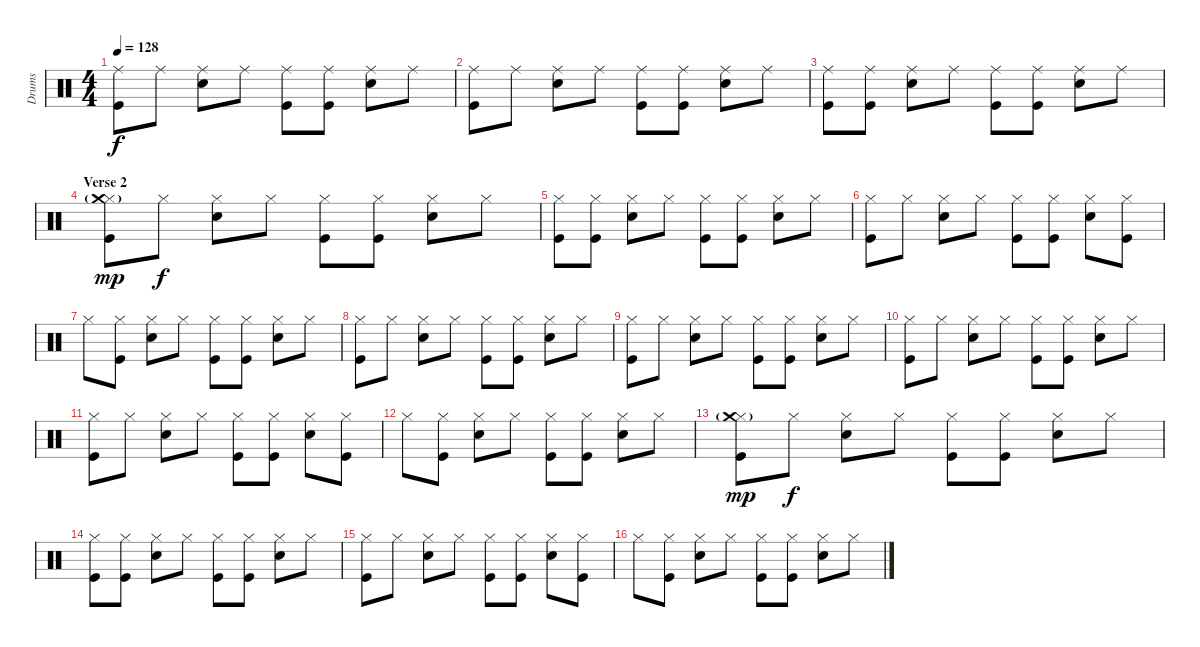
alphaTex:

\track ("Drums" "Drums") {instrument percussion}
\staff {score}
\articulation defaults
\ts (4 4)
\tempo 128
\clef neutral
\ks c
("Ride (middle)" "Kick (hit)").8{dy f} "Ride (middle)".8 ("Ride (middle)" "Snare (hit) 2").8 "Ride (middle)".8 ("Ride (middle)" "Kick (hit)").8 ("Ride (middle)" "Kick (hit)").8 ("Ride (middle)" "Snare (hit) 2").8 "Ride (middle)".8 |
("Ride (middle)" "Kick (hit)").8 "Ride (middle)".8 ("Ride (middle)" "Snare (hit) 2").8 "Ride (middle)".8 ("Ride (middle)" "Kick (hit)").8 ("Ride (middle)" "Kick (hit)").8 ("Ride (middle)" "Snare (hit) 2").8 "Ride (middle)".8 |
("Ride (middle)" "Kick (hit)").8 ("Ride (middle)" "Kick (hit)").8 ("Ride (middle)" "Snare (hit) 2").8 "Ride (middle)".8 ("Ride (middle)" "Kick (hit)").8 ("Ride (middle)" "Kick (hit)").8 ("Ride (middle)" "Snare (hit) 2").8 "Ride (middle)".8 |
\section ("" "Verse 2")
("Hi-Hat (closed)" "Crash medium (hit)"{g} "Kick (hit)").8{dy mp} "Hi-Hat (closed)".8{dy f} ("Hi-Hat (closed)" "Snare (hit) 2").8 "Hi-Hat (closed)".8 ("Hi-Hat (closed)" "Kick (hit)").8 ("Hi-Hat (closed)" "Kick (hit)").8 ("Hi-Hat (closed)" "Snare (hit) 2").8 "Hi-Hat (closed)".8 |
("Hi-Hat (closed)" "Kick (hit)").8 ("Hi-Hat (closed)" "Kick (hit)").8 ("Hi-Hat (closed)" "Snare (hit) 2").8 "Hi-Hat (closed)".8 ("Hi-Hat (closed)" "Kick (hit)").8 ("Hi-Hat (closed)" "Kick (hit)").8 ("Hi-Hat (closed)" "Snare (hit) 2").8 "Hi-Hat (closed)".8 |
("Hi-Hat (closed)" "Kick (hit)").8 "Hi-Hat (closed)".8 ("Hi-Hat (closed)" "Snare (hit) 2").8 "Hi-Hat (closed)".8 ("Hi-Hat (closed)" "Kick (hit)").8 ("Hi-Hat (closed)" "Kick (hit)").8 ("Hi-Hat (closed)" "Snare (hit) 2").8 ("Hi-Hat (closed)" "Kick (hit)").8 |
"Hi-Hat (closed)".8 ("Hi-Hat (closed)" "Kick (hit)").8 ("Hi-Hat (closed)" "Snare (hit) 2").8 "Hi-Hat (closed)".8 ("Hi-Hat (closed)" "Kick (hit)").8 ("Hi-Hat (closed)" "Kick (hit)").8 ("Hi-Hat (closed)" "Snare (hit) 2").8 "Hi-Hat (closed)".8 |
("Hi-Hat (closed)" "Kick (hit)").8 "Hi-Hat (closed)".8 ("Hi-Hat (closed)" "Snare (hit) 2").8 "Hi-Hat (closed)".8 ("Hi-Hat (closed)" "Kick (hit)").8 ("Hi-Hat (closed)" "Kick (hit)").8 ("Hi-Hat (closed)" "Snare (hit) 2").8 "Hi-Hat (closed)".8 |
("Hi-Hat (closed)" "Kick (hit)").8 "Hi-Hat (closed)".8 ("Hi-Hat (closed)" "Snare (hit) 2").8 "Hi-Hat (closed)".8 ("Hi-Hat (closed)" "Kick (hit)").8 ("Hi-Hat (closed)" "Kick (hit)").8 ("Hi-Hat (closed)" "Snare (hit) 2").8 "Hi-Hat (closed)".8 |
("Hi-Hat (closed)" "Kick (hit)").8 "Hi-Hat (closed)".8 ("Hi-Hat (closed)" "Snare (hit) 2").8 "Hi-Hat (closed)".8 ("Hi-Hat (closed)" "Kick (hit)").8 ("Hi-Hat (closed)" "Kick (hit)").8 ("Hi-Hat (closed)" "Snare (hit) 2").8 "Hi-Hat (closed)".8 |
("Hi-Hat (closed)" "Kick (hit)").8 "Hi-Hat (closed)".8 ("Hi-Hat (closed)" "Snare (hit) 2").8 "Hi-Hat (closed)".8 ("Hi-Hat (closed)" "Kick (hit)").8 ("Hi-Hat (closed)" "Kick (hit)").8 ("Hi-Hat (closed)" "Snare (hit) 2").8 ("Hi-Hat (closed)" "Kick (hit)").8 |
"Hi-Hat (closed)".8 ("Hi-Hat (closed)" "Kick (hit)").8 ("Hi-Hat (closed)" "Snare (hit) 2").8 "Hi-Hat (closed)".8 ("Hi-Hat (closed)" "Kick (hit)").8 ("Hi-Hat (closed)" "Kick (hit)").8 ("Hi-Hat (closed)" "Snare (hit) 2").8 "Hi-Hat (closed)".8 |
("Hi-Hat (closed)" "Crash medium (hit)"{g} "Kick (hit)").8{dy mp} "Hi-Hat (closed)".8{dy f} ("Hi-Hat (closed)" "Snare (hit) 2").8 "Hi-Hat (closed)".8 ("Hi-Hat (closed)" "Kick (hit)").8 ("Hi-Hat (closed)" "Kick (hit)").8 ("Hi-Hat (closed)" "Snare (hit) 2").8 "Hi-Hat (closed)".8 |
("Hi-Hat (closed)" "Kick (hit)").8 ("Hi-Hat (closed)" "Kick (hit)").8 ("Hi-Hat (closed)" "Snare (hit) 2").8 "Hi-Hat (closed)".8 ("Hi-Hat (closed)" "Kick (hit)").8 ("Hi-Hat (closed)" "Kick (hit)").8 ("Hi-Hat (closed)" "Snare (hit) 2").8 "Hi-Hat (closed)".8 |
("Hi-Hat (closed)" "Kick (hit)").8 "Hi-Hat (closed)".8 ("Hi-Hat (closed)" "Snare (hit) 2").8 "Hi-Hat (closed)".8 ("Hi-Hat (closed)" "Kick (hit)").8 ("Hi-Hat (closed)" "Kick (hit)").8 ("Hi-Hat (closed)" "Snare (hit) 2").8 ("Hi-Hat (closed)" "Kick (hit)").8 |
"Hi-Hat (closed)".8 ("Hi-Hat (closed)" "Kick (hit)").8 ("Hi-Hat (closed)" "Snare (hit) 2").8 "Hi-Hat (closed)".8 ("Hi-Hat (closed)" "Kick (hit)").8 ("Hi-Hat (closed)" "Kick (hit)").8 ("Hi-Hat (closed)" "Snare (hit) 2").8 "Hi-Hat (closed)".8
